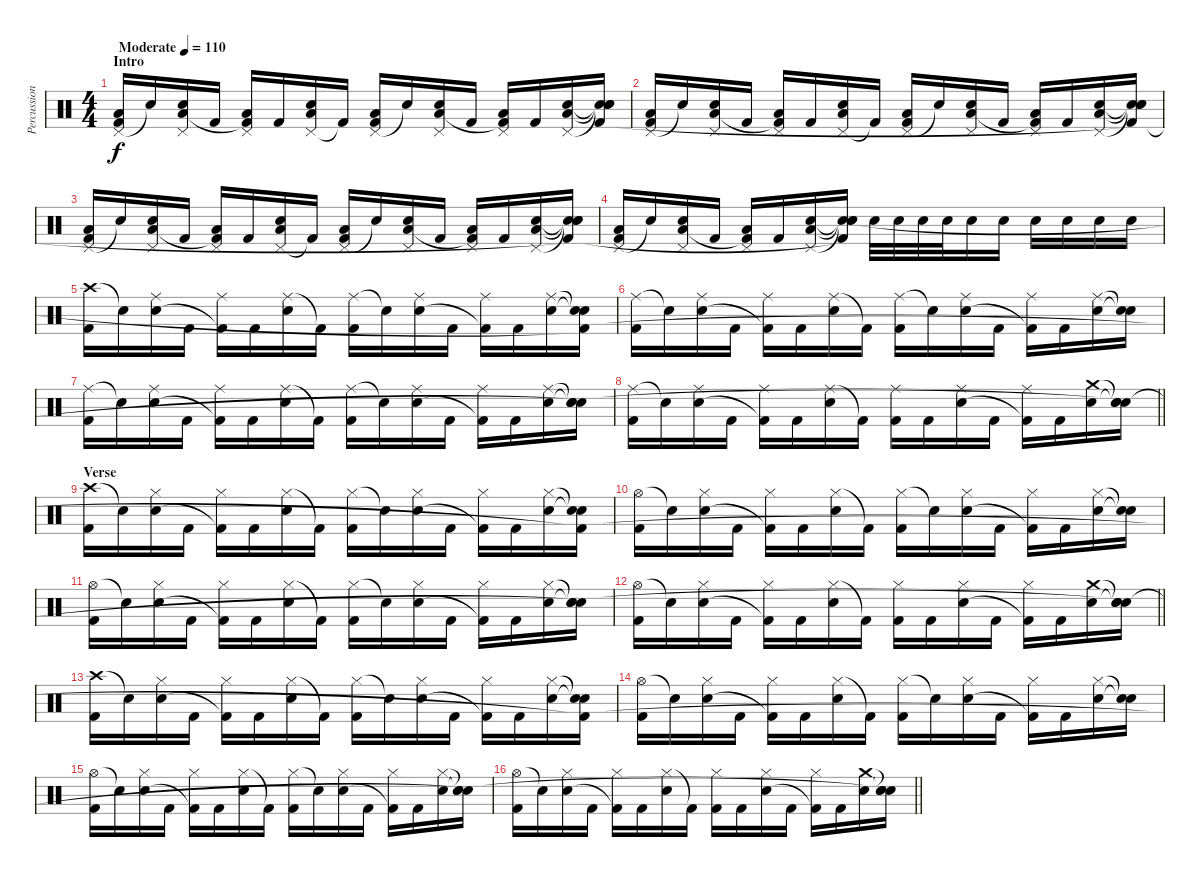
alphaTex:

\track ("Percussion" "Percussion") {instrument percussion}
\staff {score}
\articulation defaults
\ts (4 4)
\section ("" "Intro")
\tempo (110 "Moderate")
\clef neutral
\ks c
("Pedal Hi-Hat (hit)" "Low Tom (hit)" "Kick (hit) 2").16{dy f} "Snare (hit)"{t}.16 ("Pedal Hi-Hat (hit)" "Electric Snare (hit)" "Low Tom (hit)").16 "Kick (hit) 2".16 ("Pedal Hi-Hat (hit)" "Low Tom (hit)" "Kick (hit) 2"{t}).16 "Kick (hit) 2".16 ("Pedal Hi-Hat (hit)" "Electric Snare (hit)" "Low Tom (hit)").16 "Kick (hit) 2"{t}.16 ("Pedal Hi-Hat (hit)" "Low Tom (hit)" "Kick (hit) 2").16 "Snare (hit)"{t}.16 ("Pedal Hi-Hat (hit)" "Electric Snare (hit)" "Low Tom (hit)").16 "Kick (hit) 2".16 ("Pedal Hi-Hat (hit)" "Low Tom (hit)" "Kick (hit) 2"{t}).16 "Kick (hit) 2".16 ("Pedal Hi-Hat (hit)" "Electric Snare (hit)" "Low Tom (hit)").16 ("Snare (hit)"{t} "Snare (hit)"{t} "Snare (hit)"{t} "Kick (hit) 2").16 |
("Pedal Hi-Hat (hit)" "Low Tom (hit)" "Kick (hit) 2").16 "Snare (hit)"{t}.16 ("Pedal Hi-Hat (hit)" "Electric Snare (hit)" "Low Tom (hit)").16 "Kick (hit) 2".16 ("Pedal Hi-Hat (hit)" "Low Tom (hit)" "Kick (hit) 2"{t}).16 "Kick (hit) 2".16 ("Pedal Hi-Hat (hit)" "Electric Snare (hit)" "Low Tom (hit)").16 "Kick (hit) 2"{t}.16 ("Pedal Hi-Hat (hit)" "Low Tom (hit)" "Kick (hit) 2").16 "Snare (hit)"{t}.16 ("Pedal Hi-Hat (hit)" "Electric Snare (hit)" "Low Tom (hit)").16 "Kick (hit) 2".16 ("Pedal Hi-Hat (hit)" "Low Tom (hit)" "Kick (hit) 2"{t}).16 "Kick (hit) 2".16 ("Pedal Hi-Hat (hit)" "Electric Snare (hit)" "Low Tom (hit)").16 ("Snare (hit)"{t} "Snare (hit)"{t} "Snare (hit)"{t} "Kick (hit) 2"{t}).16 |
("Pedal Hi-Hat (hit)" "Low Tom (hit)" "Kick (hit) 2").16 "Snare (hit)"{t}.16 ("Pedal Hi-Hat (hit)" "Electric Snare (hit)" "Low Tom (hit)").16 "Kick (hit) 2".16 ("Pedal Hi-Hat (hit)" "Low Tom (hit)" "Kick (hit) 2"{t}).16 "Kick (hit) 2".16 ("Pedal Hi-Hat (hit)" "Electric Snare (hit)" "Low Tom (hit)").16 "Kick (hit) 2"{t}.16 ("Pedal Hi-Hat (hit)" "Low Tom (hit)" "Kick (hit) 2").16 "Snare (hit)"{t}.16 ("Pedal Hi-Hat (hit)" "Electric Snare (hit)" "Low Tom (hit)").16 "Kick (hit) 2".16 ("Pedal Hi-Hat (hit)" "Low Tom (hit)" "Kick (hit) 2"{t}).16 "Kick (hit) 2".16 ("Pedal Hi-Hat (hit)" "Electric Snare (hit)" "Low Tom (hit)").16 ("Snare (hit)"{t} "Snare (hit)"{t} "Snare (hit)"{t} "Kick (hit) 2"{t}).16 |
("Pedal Hi-Hat (hit)" "Low Tom (hit)" "Kick (hit) 2").16 "Snare (hit)"{t}.16 ("Pedal Hi-Hat (hit)" "Electric Snare (hit)" "Low Tom (hit)").16 "Kick (hit) 2".16 ("Pedal Hi-Hat (hit)" "Low Tom (hit)" "Kick (hit) 2"{t}).16 "Kick (hit) 2".16 ("Pedal Hi-Hat (hit)" "Electric Snare (hit)" "Low Tom (hit)").16 ("Snare (hit)"{t} "Snare (hit)"{t} "Snare (hit)"{t} "Kick (hit) 2"{t}).16 "Electric Snare (hit)".32 "Electric Snare (hit)".32 "Electric Snare (hit)".32 "Electric Snare (hit)".32 "Electric Snare (hit)".16 "Electric Snare (hit)".16 "Electric Snare (hit)".16 "Electric Snare (hit)".16 "Electric Snare (hit)".16 "Electric Snare (hit)".16 |
("Crash high (hit)" "Kick (hit) 2").16 "Snare (hit)"{t}.16 ("Ride (middle)" "Electric Snare (hit)").16 "Kick (hit) 2".16 ("Ride (middle)" "Kick (hit) 2"{t}).16 "Kick (hit) 2".16 ("Ride (middle)" "Electric Snare (hit)").16 "Kick (hit) 2"{t}.16 ("Ride (middle)" "Kick (hit) 2").16 "Snare (hit)"{t}.16 ("Ride (middle)" "Electric Snare (hit)").16 "Kick (hit) 2".16 ("Ride (middle)" "Kick (hit) 2"{t}).16 "Kick (hit) 2".16 ("Ride (middle)" "Electric Snare (hit)").16 ("Snare (hit)"{t} "Snare (hit)"{t} "Kick (hit) 2"{t}).16 |
("Ride (middle)" "Kick (hit) 2").16 "Snare (hit)"{t}.16 ("Ride (middle)" "Electric Snare (hit)").16 "Kick (hit) 2".16 ("Ride (middle)" "Kick (hit) 2"{t}).16 "Kick (hit) 2".16 ("Ride (middle)" "Electric Snare (hit)").16 "Kick (hit) 2"{t}.16 ("Ride (middle)" "Kick (hit) 2").16 "Snare (hit)"{t}.16 ("Ride (middle)" "Electric Snare (hit)").16 "Kick (hit) 2".16 ("Ride (middle)" "Kick (hit) 2"{t}).16 "Kick (hit) 2".16 ("Ride (middle)" "Electric Snare (hit)").16 ("Snare (hit)"{t} "Snare (hit)"{t}).16 |
("Ride (middle)" "Kick (hit) 2").16 "Snare (hit)"{t}.16 ("Ride (middle)" "Electric Snare (hit)").16 "Kick (hit) 2".16 ("Ride (middle)" "Kick (hit) 2"{t}).16 "Kick (hit) 2".16 ("Ride (middle)" "Electric Snare (hit)").16 "Kick (hit) 2"{t}.16 ("Ride (middle)" "Kick (hit) 2").16 "Snare (hit)"{t}.16 ("Ride (middle)" "Electric Snare (hit)").16 "Kick (hit) 2".16 ("Ride (middle)" "Kick (hit) 2"{t}).16 "Kick (hit) 2".16 ("Ride (middle)" "Electric Snare (hit)").16 ("Snare (hit)"{t} "Snare (hit)"{t} "Snare (hit)"{t}).16 |
\barLineRight lightlight
("Ride (middle)" "Kick (hit) 2").16 "Snare (hit)"{t}.16 ("Ride (middle)" "Electric Snare (hit)").16 "Kick (hit) 2".16 ("Ride (middle)" "Kick (hit) 2"{t}).16 "Kick (hit) 2".16 ("Ride (middle)" "Electric Snare (hit)").16 "Kick (hit) 2"{t}.16 ("Ride (middle)" "Kick (hit) 2").16 "Kick (hit) 2".16 ("Ride (middle)" "Electric Snare (hit)").16 "Kick (hit) 2".16 ("Ride (middle)" "Kick (hit) 2"{t}).16 "Kick (hit) 2".16 ("Crash medium (hit)" "Electric Snare (hit)").16 ("Snare (hit)"{t} "Snare (hit)"{t} "Snare (hit)"{t}).16 |
\section ("" "Verse")
("Crash high (hit)" "Kick (hit) 2").16 "Snare (hit)"{t}.16 ("Hi-Hat (closed)" "Electric Snare (hit)").16 "Kick (hit) 2".16 ("Hi-Hat (closed)" "Kick (hit) 2"{t}).16 "Kick (hit) 2".16 ("Hi-Hat (closed)" "Electric Snare (hit)").16 "Kick (hit) 2"{t}.16 ("Hi-Hat (closed)" "Kick (hit) 2").16 "Snare (hit)"{t}.16 ("Hi-Hat (closed)" "Electric Snare (hit)").16 "Kick (hit) 2".16 ("Hi-Hat (closed)" "Kick (hit) 2"{t}).16 "Kick (hit) 2".16 ("Hi-Hat (closed)" "Electric Snare (hit)").16 ("Snare (hit)"{t} "Snare (hit)"{t} "Kick (hit) 2"{t}).16 |
("Hi-Hat (open)" "Kick (hit) 2").16 "Snare (hit)"{t}.16 ("Hi-Hat (closed)" "Electric Snare (hit)").16 "Kick (hit) 2".16 ("Hi-Hat (closed)" "Kick (hit) 2"{t}).16 "Kick (hit) 2".16 ("Hi-Hat (closed)" "Electric Snare (hit)").16 "Kick (hit) 2"{t}.16 ("Hi-Hat (closed)" "Kick (hit) 2").16 "Snare (hit)"{t}.16 ("Hi-Hat (closed)" "Electric Snare (hit)").16 "Kick (hit) 2".16 ("Hi-Hat (closed)" "Kick (hit) 2"{t}).16 "Kick (hit) 2".16 ("Hi-Hat (closed)" "Electric Snare (hit)").16 ("Snare (hit)"{t} "Snare (hit)"{t}).16 |
("Hi-Hat (open)" "Kick (hit) 2").16 "Snare (hit)"{t}.16 ("Hi-Hat (closed)" "Electric Snare (hit)").16 "Kick (hit) 2".16 ("Hi-Hat (closed)" "Kick (hit) 2"{t}).16 "Kick (hit) 2".16 ("Hi-Hat (closed)" "Electric Snare (hit)").16 "Kick (hit) 2"{t}.16 ("Hi-Hat (closed)" "Kick (hit) 2").16 "Snare (hit)"{t}.16 ("Hi-Hat (closed)" "Electric Snare (hit)").16 "Kick (hit) 2".16 ("Hi-Hat (closed)" "Kick (hit) 2"{t}).16 "Kick (hit) 2".16 ("Hi-Hat (closed)" "Electric Snare (hit)").16 ("Snare (hit)"{t} "Snare (hit)"{t} "Snare (hit)"{t}).16 |
\barLineRight lightlight
("Hi-Hat (open)" "Kick (hit) 2").16 "Snare (hit)"{t}.16 ("Hi-Hat (closed)" "Electric Snare (hit)").16 "Kick (hit) 2".16 ("Hi-Hat (closed)" "Kick (hit) 2"{t}).16 "Kick (hit) 2".16 ("Hi-Hat (closed)" "Electric Snare (hit)").16 "Kick (hit) 2"{t}.16 ("Hi-Hat (closed)" "Kick (hit) 2").16 "Kick (hit) 2".16 ("Hi-Hat (closed)" "Electric Snare (hit)").16 "Kick (hit) 2".16 ("Hi-Hat (closed)" "Kick (hit) 2"{t}).16 "Kick (hit) 2".16 ("Crash medium (hit)" "Electric Snare (hit)").16 ("Snare (hit)"{t} "Snare (hit)"{t} "Snare (hit)"{t}).16 |
("Crash high (hit)" "Kick (hit) 2").16 "Snare (hit)"{t}.16 ("Hi-Hat (closed)" "Electric Snare (hit)").16 "Kick (hit) 2".16 ("Hi-Hat (closed)" "Kick (hit) 2"{t}).16 "Kick (hit) 2".16 ("Hi-Hat (closed)" "Electric Snare (hit)").16 "Kick (hit) 2"{t}.16 ("Hi-Hat (closed)" "Kick (hit) 2").16 "Snare (hit)"{t}.16 ("Hi-Hat (closed)" "Electric Snare (hit)").16 "Kick (hit) 2".16 ("Hi-Hat (closed)" "Kick (hit) 2"{t}).16 "Kick (hit) 2".16 ("Hi-Hat (closed)" "Electric Snare (hit)").16 ("Snare (hit)"{t} "Snare (hit)"{t} "Kick (hit) 2"{t}).16 |
("Hi-Hat (open)" "Kick (hit) 2").16 "Snare (hit)"{t}.16 ("Hi-Hat (closed)" "Electric Snare (hit)").16 "Kick (hit) 2".16 ("Hi-Hat (closed)" "Kick (hit) 2"{t}).16 "Kick (hit) 2".16 ("Hi-Hat (closed)" "Electric Snare (hit)").16 "Kick (hit) 2"{t}.16 ("Hi-Hat (closed)" "Kick (hit) 2").16 "Snare (hit)"{t}.16 ("Hi-Hat (closed)" "Electric Snare (hit)").16 "Kick (hit) 2".16 ("Hi-Hat (closed)" "Kick (hit) 2"{t}).16 "Kick (hit) 2".16 ("Hi-Hat (closed)" "Electric Snare (hit)").16 ("Snare (hit)"{t} "Snare (hit)"{t}).16 |
("Hi-Hat (open)" "Kick (hit) 2").16 "Snare (hit)"{t}.16 ("Hi-Hat (closed)" "Electric Snare (hit)").16 "Kick (hit) 2".16 ("Hi-Hat (closed)" "Kick (hit) 2"{t}).16 "Kick (hit) 2".16 ("Hi-Hat (closed)" "Electric Snare (hit)").16 "Kick (hit) 2"{t}.16 ("Hi-Hat (closed)" "Kick (hit) 2").16 "Snare (hit)"{t}.16 ("Hi-Hat (closed)" "Electric Snare (hit)").16 "Kick (hit) 2".16 ("Hi-Hat (closed)" "Kick (hit) 2"{t}).16 "Kick (hit) 2".16 ("Hi-Hat (closed)" "Electric Snare (hit)").16 ("Snare (hit)"{t} "Snare (hit)"{t} "Snare (hit)"{t}).16 |
\barLineRight lightlight
("Hi-Hat (open)" "Kick (hit) 2").16 "Snare (hit)"{t}.16 ("Hi-Hat (closed)" "Electric Snare (hit)").16 "Kick (hit) 2".16 ("Hi-Hat (closed)" "Kick (hit) 2"{t}).16 "Kick (hit) 2".16 ("Hi-Hat (closed)" "Electric Snare (hit)").16 "Kick (hit) 2"{t}.16 ("Hi-Hat (closed)" "Kick (hit) 2").16 "Kick (hit) 2".16 ("Hi-Hat (closed)" "Electric Snare (hit)").16 "Kick (hit) 2".16 ("Hi-Hat (closed)" "Kick (hit) 2"{t}).16 "Kick (hit) 2".16 ("Crash medium (hit)" "Electric Snare (hit)").16 ("Snare (hit)"{t} "Snare (hit)"{t} "Snare (hit)"{t}).16
